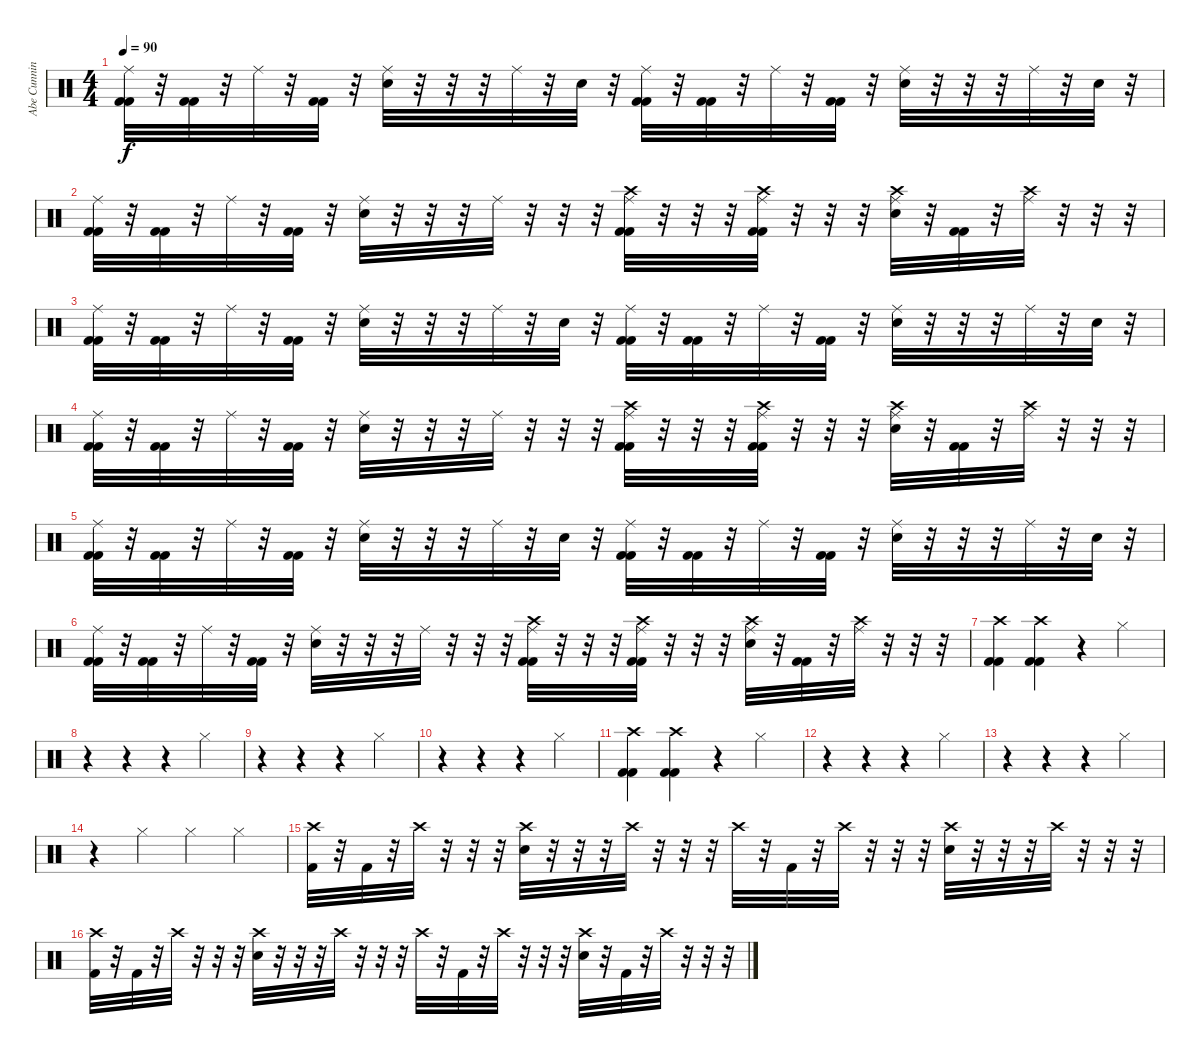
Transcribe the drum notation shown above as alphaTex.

\track ("Abe Cunningham - Drums" "Abe Cunnin") {instrument percussion}
\staff {score}
\articulation defaults
\ts (4 4)
\tempo 90
\clef neutral
\ks c
("Ride (middle)" "Kick (hit) 2" "Kick (hit) 2").32{dy f} r.32 ("Kick (hit) 2" "Kick (hit) 2").32 r.32 "Ride (middle)".32 r.32 ("Kick (hit) 2" "Kick (hit) 2").32 r.32 ("Ride (middle)" "Electric Snare (hit)").32 r.32 r.32 r.32 "Ride (middle)".32 r.32 "Electric Snare (hit)".32 r.32 ("Ride (middle)" "Kick (hit) 2" "Kick (hit) 2").32 r.32 ("Kick (hit) 2" "Kick (hit) 2").32 r.32 "Ride (middle)".32 r.32 ("Kick (hit) 2" "Kick (hit) 2").32 r.32 ("Ride (middle)" "Electric Snare (hit)").32 r.32 r.32 r.32 "Ride (middle)".32 r.32 "Electric Snare (hit)".32 r.32 |
("Ride (middle)" "Kick (hit) 2" "Kick (hit) 2").32 r.32 ("Kick (hit) 2" "Kick (hit) 2").32 r.32 "Ride (middle)".32 r.32 ("Kick (hit) 2" "Kick (hit) 2").32 r.32 ("Ride (middle)" "Electric Snare (hit)").32 r.32 r.32 r.32 "Ride (middle)".32 r.32 r.32 r.32 ("Crash high (hit)" "Ride (middle)" "Kick (hit) 2" "Kick (hit) 2").32 r.32 r.32 r.32 ("Crash high (hit)" "Ride (middle)" "Kick (hit) 2" "Kick (hit) 2").32 r.32 r.32 r.32 ("Crash high (hit)" "Ride (middle)" "Electric Snare (hit)").32 r.32 ("Kick (hit) 2" "Kick (hit) 2").32 r.32 ("Crash high (hit)" "Ride (middle)").32 r.32 r.32 r.32 |
("Ride (middle)" "Kick (hit) 2" "Kick (hit) 2").32 r.32 ("Kick (hit) 2" "Kick (hit) 2").32 r.32 "Ride (middle)".32 r.32 ("Kick (hit) 2" "Kick (hit) 2").32 r.32 ("Ride (middle)" "Electric Snare (hit)").32 r.32 r.32 r.32 "Ride (middle)".32 r.32 "Electric Snare (hit)".32 r.32 ("Ride (middle)" "Kick (hit) 2" "Kick (hit) 2").32 r.32 ("Kick (hit) 2" "Kick (hit) 2").32 r.32 "Ride (middle)".32 r.32 ("Kick (hit) 2" "Kick (hit) 2").32 r.32 ("Ride (middle)" "Electric Snare (hit)").32 r.32 r.32 r.32 "Ride (middle)".32 r.32 "Electric Snare (hit)".32 r.32 |
("Ride (middle)" "Kick (hit) 2" "Kick (hit) 2").32 r.32 ("Kick (hit) 2" "Kick (hit) 2").32 r.32 "Ride (middle)".32 r.32 ("Kick (hit) 2" "Kick (hit) 2").32 r.32 ("Ride (middle)" "Electric Snare (hit)").32 r.32 r.32 r.32 "Ride (middle)".32 r.32 r.32 r.32 ("Crash high (hit)" "Ride (middle)" "Kick (hit) 2" "Kick (hit) 2").32 r.32 r.32 r.32 ("Crash high (hit)" "Ride (middle)" "Kick (hit) 2" "Kick (hit) 2").32 r.32 r.32 r.32 ("Crash high (hit)" "Ride (middle)" "Electric Snare (hit)").32 r.32 ("Kick (hit) 2" "Kick (hit) 2").32 r.32 ("Crash high (hit)" "Ride (middle)").32 r.32 r.32 r.32 |
("Ride (middle)" "Kick (hit) 2" "Kick (hit) 2").32 r.32 ("Kick (hit) 2" "Kick (hit) 2").32 r.32 "Ride (middle)".32 r.32 ("Kick (hit) 2" "Kick (hit) 2").32 r.32 ("Ride (middle)" "Electric Snare (hit)").32 r.32 r.32 r.32 "Ride (middle)".32 r.32 "Electric Snare (hit)".32 r.32 ("Ride (middle)" "Kick (hit) 2" "Kick (hit) 2").32 r.32 ("Kick (hit) 2" "Kick (hit) 2").32 r.32 "Ride (middle)".32 r.32 ("Kick (hit) 2" "Kick (hit) 2").32 r.32 ("Ride (middle)" "Electric Snare (hit)").32 r.32 r.32 r.32 "Ride (middle)".32 r.32 "Electric Snare (hit)".32 r.32 |
("Ride (middle)" "Kick (hit) 2" "Kick (hit) 2").32 r.32 ("Kick (hit) 2" "Kick (hit) 2").32 r.32 "Ride (middle)".32 r.32 ("Kick (hit) 2" "Kick (hit) 2").32 r.32 ("Ride (middle)" "Electric Snare (hit)").32 r.32 r.32 r.32 "Ride (middle)".32 r.32 r.32 r.32 ("Crash high (hit)" "Ride (middle)" "Kick (hit) 2" "Kick (hit) 2").32 r.32 r.32 r.32 ("Crash high (hit)" "Ride (middle)" "Kick (hit) 2" "Kick (hit) 2").32 r.32 r.32 r.32 ("Crash high (hit)" "Ride (middle)" "Electric Snare (hit)").32 r.32 ("Kick (hit) 2" "Kick (hit) 2").32 r.32 ("Crash high (hit)" "Ride (middle)").32 r.32 r.32 r.32 |
("Crash high (hit)" "Kick (hit) 2" "Kick (hit) 2").4 ("Crash high (hit)" "Kick (hit) 2" "Kick (hit) 2").4 r.4 "Hi-Hat (closed)".4 |
r.4 r.4 r.4 "Hi-Hat (closed)".4 |
r.4 r.4 r.4 "Hi-Hat (closed)".4 |
r.4 r.4 r.4 "Hi-Hat (closed)".4 |
("Crash high (hit)" "Kick (hit) 2" "Kick (hit) 2").4 ("Crash high (hit)" "Kick (hit) 2" "Kick (hit) 2").4 r.4 "Hi-Hat (closed)".4 |
r.4 r.4 r.4 "Hi-Hat (closed)".4 |
r.4 r.4 r.4 "Hi-Hat (closed)".4 |
r.4 "Hi-Hat (closed)".4 "Hi-Hat (closed)".4 "Hi-Hat (closed)".4 |
("Crash high (hit)" "Kick (hit) 2").32 r.32 "Kick (hit) 2".32 r.32 "Crash high (hit)".32 r.32 r.32 r.32 ("Crash high (hit)" "Electric Snare (hit)").32 r.32 r.32 r.32 "Crash high (hit)".32 r.32 r.32 r.32 "Crash high (hit)".32 r.32 "Kick (hit) 2".32 r.32 "Crash high (hit)".32 r.32 r.32 r.32 ("Crash high (hit)" "Electric Snare (hit)").32 r.32 r.32 r.32 "Crash high (hit)".32 r.32 r.32 r.32 |
("Crash high (hit)" "Kick (hit) 2").32 r.32 "Kick (hit) 2".32 r.32 "Crash high (hit)".32 r.32 r.32 r.32 ("Crash high (hit)" "Electric Snare (hit)").32 r.32 r.32 r.32 "Crash high (hit)".32 r.32 r.32 r.32 "Crash high (hit)".32 r.32 "Kick (hit) 2".32 r.32 "Crash high (hit)".32 r.32 r.32 r.32 ("Crash high (hit)" "Electric Snare (hit)").32 r.32 "Kick (hit) 2".32 r.32 "Crash high (hit)".32 r.32 r.32 r.32
